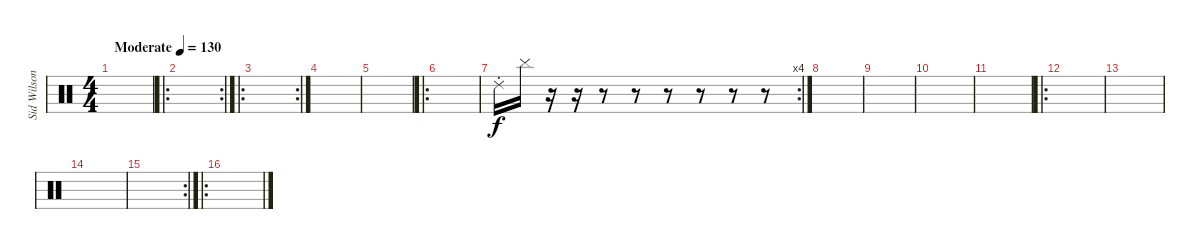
\track ("Sid Wilson " "Sid Wilson") {instrument percussion}
\staff {score}
\articulation defaults
\ts (4 4)
\tempo (130 "Moderate")
\clef neutral
\ks c
|
\ro
\rc 2
|
\ro
\rc 2
|
|
|
\ro
|
\rc 4 "Ride (choke) 2".16 "Cymbal (hit)".16
r.16 r.16 r.8 r.8 r.8 r.8 r.8 r.8 |
|
|
|
|
\ro
|
|
|
\rc 2
|
\ro
